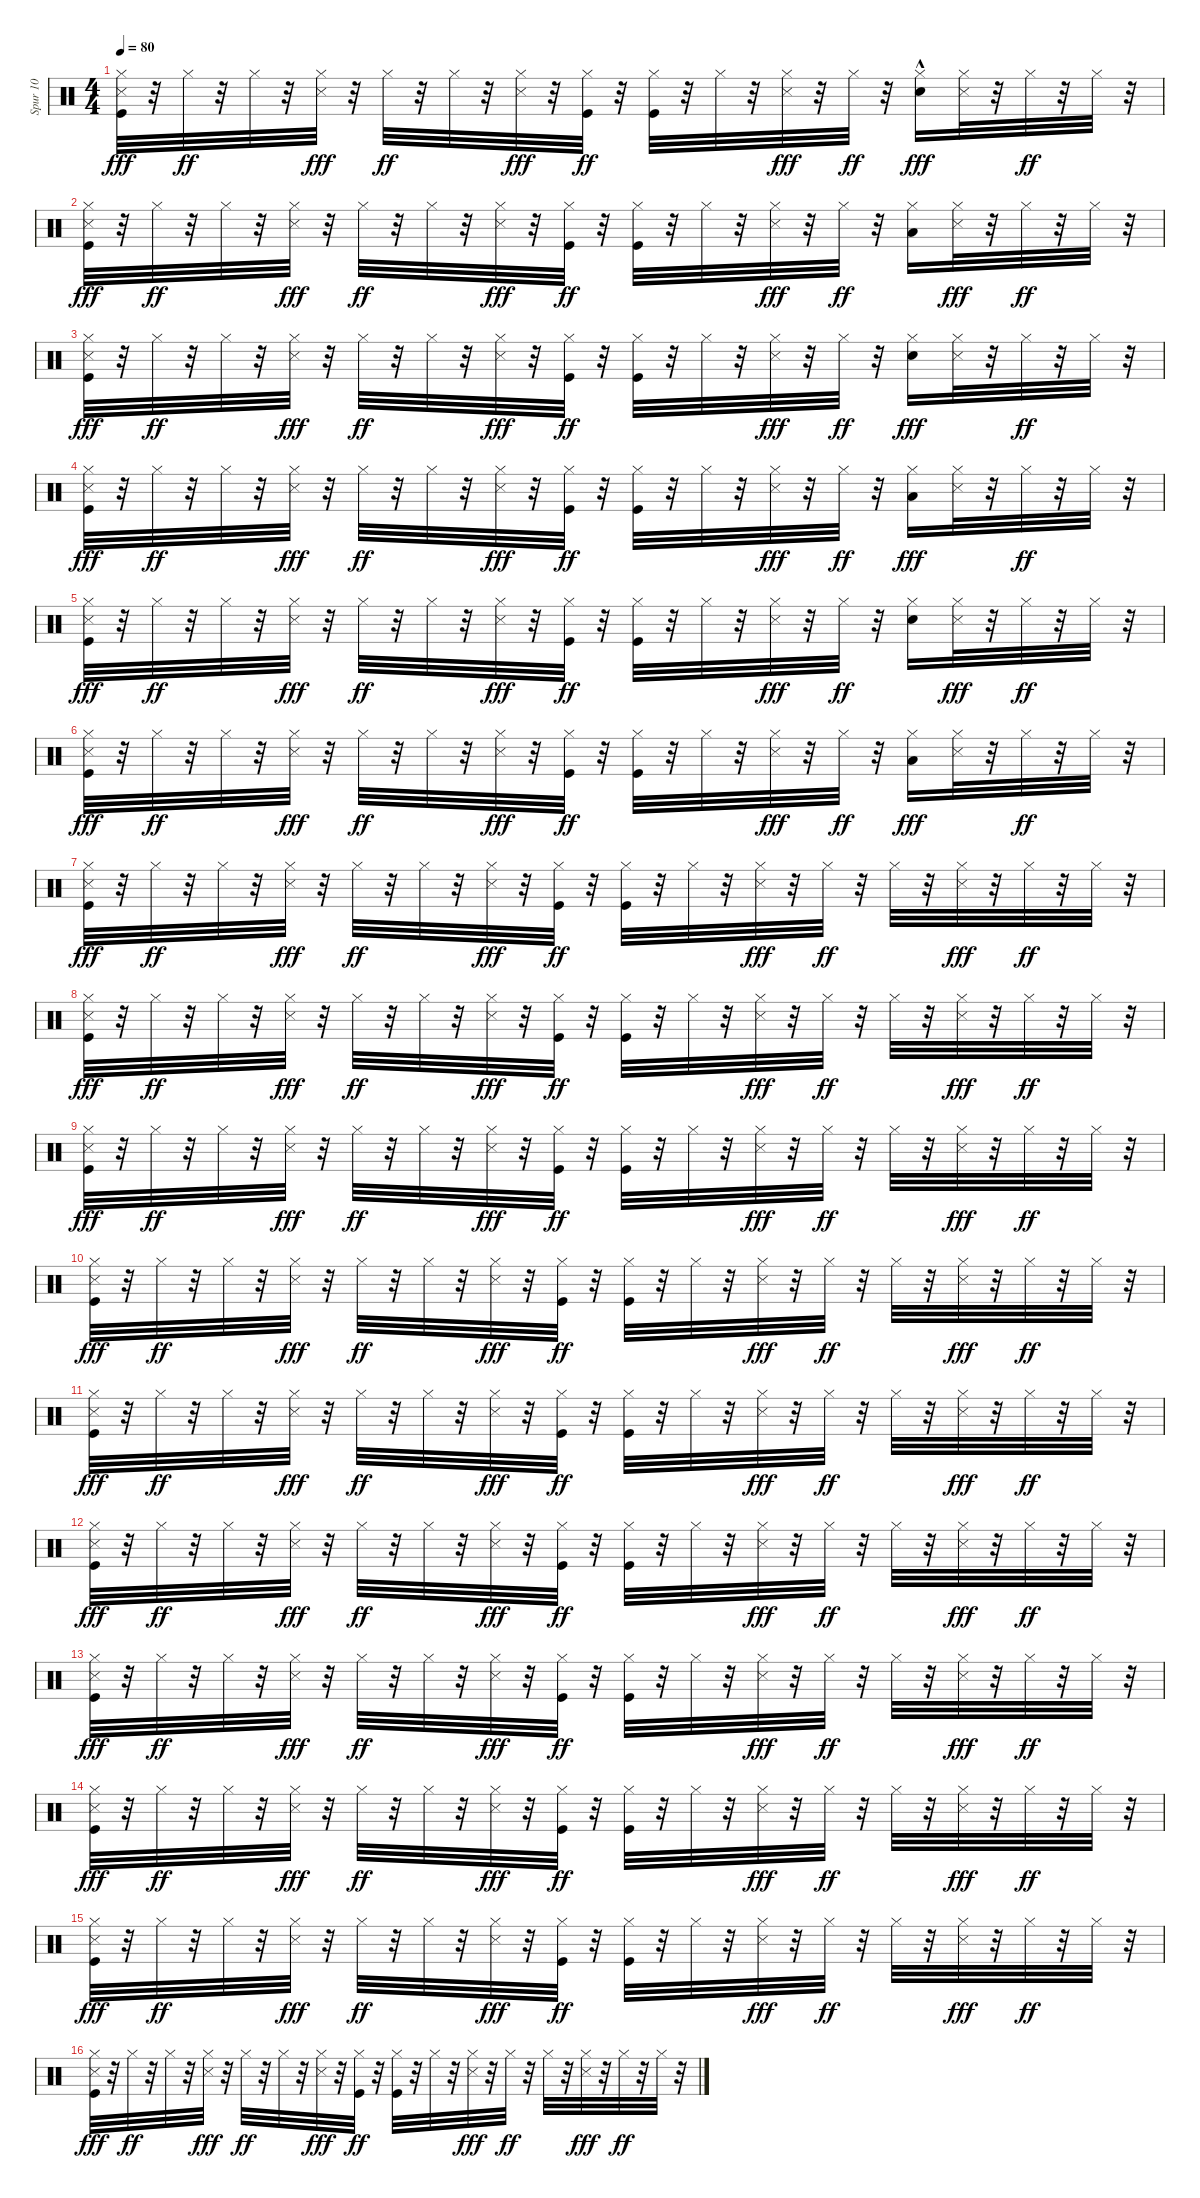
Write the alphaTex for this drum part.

\track ("Spur 10" "Spur 10") {instrument percussion}
\staff {score}
\articulation defaults
\ts (4 4)
\tempo 80
\clef neutral
\ks c
("Kick (hit)" "Hi-Hat (closed)" "Snare (side stick) 3").32{dy fff} r.32 "Hi-Hat (closed)".32{dy ff} r.32 "Hi-Hat (closed)".32 r.32 ("Hi-Hat (closed)" "Snare (side stick) 3").32{dy fff} r.32 "Hi-Hat (closed)".32{dy ff} r.32 "Hi-Hat (closed)".32 r.32 ("Hi-Hat (closed)" "Snare (side stick) 3").32{dy fff} r.32 ("Kick (hit)" "Hi-Hat (closed)").32{dy ff} r.32 ("Kick (hit)" "Hi-Hat (closed)").32 r.32 "Hi-Hat (closed)".32 r.32 ("Hi-Hat (closed)" "Snare (side stick) 3").32{dy fff} r.32 "Hi-Hat (closed)".32{dy ff} r.32 ("Hi-Hat (closed)" "Snare (hit) 2"{hac}).16{dy fff} ("Hi-Hat (closed)" "Snare (side stick) 3").32 r.32 "Hi-Hat (closed)".32{dy ff} r.32 "Hi-Hat (closed)".32 r.32 |
("Kick (hit)" "Hi-Hat (closed)" "Snare (side stick) 3").32{dy fff} r.32 "Hi-Hat (closed)".32{dy ff} r.32 "Hi-Hat (closed)".32 r.32 ("Hi-Hat (closed)" "Snare (side stick) 3").32{dy fff} r.32 "Hi-Hat (closed)".32{dy ff} r.32 "Hi-Hat (closed)".32 r.32 ("Hi-Hat (closed)" "Snare (side stick) 3").32{dy fff} r.32 ("Kick (hit)" "Hi-Hat (closed)").32{dy ff} r.32 ("Kick (hit)" "Hi-Hat (closed)").32 r.32 "Hi-Hat (closed)".32 r.32 ("Hi-Hat (closed)" "Snare (side stick) 3").32{dy fff} r.32 "Hi-Hat (closed)".32{dy ff} r.32 ("Low Floor Tom (hit)" "Hi-Hat (closed)").16 ("Hi-Hat (closed)" "Snare (side stick) 3").32{dy fff} r.32 "Hi-Hat (closed)".32{dy ff} r.32 "Hi-Hat (closed)".32 r.32 |
("Kick (hit)" "Hi-Hat (closed)" "Snare (side stick) 3").32{dy fff} r.32 "Hi-Hat (closed)".32{dy ff} r.32 "Hi-Hat (closed)".32 r.32 ("Hi-Hat (closed)" "Snare (side stick) 3").32{dy fff} r.32 "Hi-Hat (closed)".32{dy ff} r.32 "Hi-Hat (closed)".32 r.32 ("Hi-Hat (closed)" "Snare (side stick) 3").32{dy fff} r.32 ("Kick (hit)" "Hi-Hat (closed)").32{dy ff} r.32 ("Kick (hit)" "Hi-Hat (closed)").32 r.32 "Hi-Hat (closed)".32 r.32 ("Hi-Hat (closed)" "Snare (side stick) 3").32{dy fff} r.32 "Hi-Hat (closed)".32{dy ff} r.32 ("Hi-Hat (closed)" "Snare (hit) 2").16{dy fff} ("Hi-Hat (closed)" "Snare (side stick) 3").32 r.32 "Hi-Hat (closed)".32{dy ff} r.32 "Hi-Hat (closed)".32 r.32 |
("Kick (hit)" "Hi-Hat (closed)" "Snare (side stick) 3").32{dy fff} r.32 "Hi-Hat (closed)".32{dy ff} r.32 "Hi-Hat (closed)".32 r.32 ("Hi-Hat (closed)" "Snare (side stick) 3").32{dy fff} r.32 "Hi-Hat (closed)".32{dy ff} r.32 "Hi-Hat (closed)".32 r.32 ("Hi-Hat (closed)" "Snare (side stick) 3").32{dy fff} r.32 ("Kick (hit)" "Hi-Hat (closed)").32{dy ff} r.32 ("Kick (hit)" "Hi-Hat (closed)").32 r.32 "Hi-Hat (closed)".32 r.32 ("Hi-Hat (closed)" "Snare (side stick) 3").32{dy fff} r.32 "Hi-Hat (closed)".32{dy ff} r.32 ("Hi-Hat (closed)" "Low Floor Tom (hit)").16{dy fff} ("Hi-Hat (closed)" "Snare (side stick) 3").32 r.32 "Hi-Hat (closed)".32{dy ff} r.32 "Hi-Hat (closed)".32 r.32 |
("Kick (hit)" "Hi-Hat (closed)" "Snare (side stick) 3").32{dy fff} r.32 "Hi-Hat (closed)".32{dy ff} r.32 "Hi-Hat (closed)".32 r.32 ("Hi-Hat (closed)" "Snare (side stick) 3").32{dy fff} r.32 "Hi-Hat (closed)".32{dy ff} r.32 "Hi-Hat (closed)".32 r.32 ("Hi-Hat (closed)" "Snare (side stick) 3").32{dy fff} r.32 ("Kick (hit)" "Hi-Hat (closed)").32{dy ff} r.32 ("Kick (hit)" "Hi-Hat (closed)").32 r.32 "Hi-Hat (closed)".32 r.32 ("Hi-Hat (closed)" "Snare (side stick) 3").32{dy fff} r.32 "Hi-Hat (closed)".32{dy ff} r.32 ("Snare (hit) 2" "Hi-Hat (closed)").16 ("Hi-Hat (closed)" "Snare (side stick) 3").32{dy fff} r.32 "Hi-Hat (closed)".32{dy ff} r.32 "Hi-Hat (closed)".32 r.32 |
("Kick (hit)" "Hi-Hat (closed)" "Snare (side stick) 3").32{dy fff} r.32 "Hi-Hat (closed)".32{dy ff} r.32 "Hi-Hat (closed)".32 r.32 ("Hi-Hat (closed)" "Snare (side stick) 3").32{dy fff} r.32 "Hi-Hat (closed)".32{dy ff} r.32 "Hi-Hat (closed)".32 r.32 ("Hi-Hat (closed)" "Snare (side stick) 3").32{dy fff} r.32 ("Kick (hit)" "Hi-Hat (closed)").32{dy ff} r.32 ("Kick (hit)" "Hi-Hat (closed)").32 r.32 "Hi-Hat (closed)".32 r.32 ("Hi-Hat (closed)" "Snare (side stick) 3").32{dy fff} r.32 "Hi-Hat (closed)".32{dy ff} r.32 ("Hi-Hat (closed)" "Low Floor Tom (hit)").16{dy fff} ("Hi-Hat (closed)" "Snare (side stick) 3").32 r.32 "Hi-Hat (closed)".32{dy ff} r.32 "Hi-Hat (closed)".32 r.32 |
("Kick (hit)" "Hi-Hat (closed)" "Snare (side stick) 3").32{dy fff} r.32 "Hi-Hat (closed)".32{dy ff} r.32 "Hi-Hat (closed)".32 r.32 ("Hi-Hat (closed)" "Snare (side stick) 3").32{dy fff} r.32 "Hi-Hat (closed)".32{dy ff} r.32 "Hi-Hat (closed)".32 r.32 ("Hi-Hat (closed)" "Snare (side stick) 3").32{dy fff} r.32 ("Kick (hit)" "Hi-Hat (closed)").32{dy ff} r.32 ("Kick (hit)" "Hi-Hat (closed)").32 r.32 "Hi-Hat (closed)".32 r.32 ("Hi-Hat (closed)" "Snare (side stick) 3").32{dy fff} r.32 "Hi-Hat (closed)".32{dy ff} r.32 "Hi-Hat (closed)".32 r.32 ("Hi-Hat (closed)" "Snare (side stick) 3").32{dy fff} r.32 "Hi-Hat (closed)".32{dy ff} r.32 "Hi-Hat (closed)".32 r.32 |
("Kick (hit)" "Hi-Hat (closed)" "Snare (side stick) 3").32{dy fff} r.32 "Hi-Hat (closed)".32{dy ff} r.32 "Hi-Hat (closed)".32 r.32 ("Hi-Hat (closed)" "Snare (side stick) 3").32{dy fff} r.32 "Hi-Hat (closed)".32{dy ff} r.32 "Hi-Hat (closed)".32 r.32 ("Hi-Hat (closed)" "Snare (side stick) 3").32{dy fff} r.32 ("Kick (hit)" "Hi-Hat (closed)").32{dy ff} r.32 ("Kick (hit)" "Hi-Hat (closed)").32 r.32 "Hi-Hat (closed)".32 r.32 ("Hi-Hat (closed)" "Snare (side stick) 3").32{dy fff} r.32 "Hi-Hat (closed)".32{dy ff} r.32 "Hi-Hat (closed)".32 r.32 ("Hi-Hat (closed)" "Snare (side stick) 3").32{dy fff} r.32 "Hi-Hat (closed)".32{dy ff} r.32 "Hi-Hat (closed)".32 r.32 |
("Kick (hit)" "Hi-Hat (closed)" "Snare (side stick) 3").32{dy fff} r.32 "Hi-Hat (closed)".32{dy ff} r.32 "Hi-Hat (closed)".32 r.32 ("Hi-Hat (closed)" "Snare (side stick) 3").32{dy fff} r.32 "Hi-Hat (closed)".32{dy ff} r.32 "Hi-Hat (closed)".32 r.32 ("Hi-Hat (closed)" "Snare (side stick) 3").32{dy fff} r.32 ("Kick (hit)" "Hi-Hat (closed)").32{dy ff} r.32 ("Kick (hit)" "Hi-Hat (closed)").32 r.32 "Hi-Hat (closed)".32 r.32 ("Hi-Hat (closed)" "Snare (side stick) 3").32{dy fff} r.32 "Hi-Hat (closed)".32{dy ff} r.32 "Hi-Hat (closed)".32 r.32 ("Hi-Hat (closed)" "Snare (side stick) 3").32{dy fff} r.32 "Hi-Hat (closed)".32{dy ff} r.32 "Hi-Hat (closed)".32 r.32 |
("Kick (hit)" "Hi-Hat (closed)" "Snare (side stick) 3").32{dy fff} r.32 "Hi-Hat (closed)".32{dy ff} r.32 "Hi-Hat (closed)".32 r.32 ("Hi-Hat (closed)" "Snare (side stick) 3").32{dy fff} r.32 "Hi-Hat (closed)".32{dy ff} r.32 "Hi-Hat (closed)".32 r.32 ("Hi-Hat (closed)" "Snare (side stick) 3").32{dy fff} r.32 ("Kick (hit)" "Hi-Hat (closed)").32{dy ff} r.32 ("Kick (hit)" "Hi-Hat (closed)").32 r.32 "Hi-Hat (closed)".32 r.32 ("Hi-Hat (closed)" "Snare (side stick) 3").32{dy fff} r.32 "Hi-Hat (closed)".32{dy ff} r.32 "Hi-Hat (closed)".32 r.32 ("Hi-Hat (closed)" "Snare (side stick) 3").32{dy fff} r.32 "Hi-Hat (closed)".32{dy ff} r.32 "Hi-Hat (closed)".32 r.32 |
("Kick (hit)" "Hi-Hat (closed)" "Snare (side stick) 3").32{dy fff} r.32 "Hi-Hat (closed)".32{dy ff} r.32 "Hi-Hat (closed)".32 r.32 ("Hi-Hat (closed)" "Snare (side stick) 3").32{dy fff} r.32 "Hi-Hat (closed)".32{dy ff} r.32 "Hi-Hat (closed)".32 r.32 ("Hi-Hat (closed)" "Snare (side stick) 3").32{dy fff} r.32 ("Kick (hit)" "Hi-Hat (closed)").32{dy ff} r.32 ("Kick (hit)" "Hi-Hat (closed)").32 r.32 "Hi-Hat (closed)".32 r.32 ("Hi-Hat (closed)" "Snare (side stick) 3").32{dy fff} r.32 "Hi-Hat (closed)".32{dy ff} r.32 "Hi-Hat (closed)".32 r.32 ("Hi-Hat (closed)" "Snare (side stick) 3").32{dy fff} r.32 "Hi-Hat (closed)".32{dy ff} r.32 "Hi-Hat (closed)".32 r.32 |
("Kick (hit)" "Hi-Hat (closed)" "Snare (side stick) 3").32{dy fff} r.32 "Hi-Hat (closed)".32{dy ff} r.32 "Hi-Hat (closed)".32 r.32 ("Hi-Hat (closed)" "Snare (side stick) 3").32{dy fff} r.32 "Hi-Hat (closed)".32{dy ff} r.32 "Hi-Hat (closed)".32 r.32 ("Hi-Hat (closed)" "Snare (side stick) 3").32{dy fff} r.32 ("Kick (hit)" "Hi-Hat (closed)").32{dy ff} r.32 ("Kick (hit)" "Hi-Hat (closed)").32 r.32 "Hi-Hat (closed)".32 r.32 ("Hi-Hat (closed)" "Snare (side stick) 3").32{dy fff} r.32 "Hi-Hat (closed)".32{dy ff} r.32 "Hi-Hat (closed)".32 r.32 ("Hi-Hat (closed)" "Snare (side stick) 3").32{dy fff} r.32 "Hi-Hat (closed)".32{dy ff} r.32 "Hi-Hat (closed)".32 r.32 |
("Kick (hit)" "Hi-Hat (closed)" "Snare (side stick) 3").32{dy fff} r.32 "Hi-Hat (closed)".32{dy ff} r.32 "Hi-Hat (closed)".32 r.32 ("Hi-Hat (closed)" "Snare (side stick) 3").32{dy fff} r.32 "Hi-Hat (closed)".32{dy ff} r.32 "Hi-Hat (closed)".32 r.32 ("Hi-Hat (closed)" "Snare (side stick) 3").32{dy fff} r.32 ("Kick (hit)" "Hi-Hat (closed)").32{dy ff} r.32 ("Kick (hit)" "Hi-Hat (closed)").32 r.32 "Hi-Hat (closed)".32 r.32 ("Hi-Hat (closed)" "Snare (side stick) 3").32{dy fff} r.32 "Hi-Hat (closed)".32{dy ff} r.32 "Hi-Hat (closed)".32 r.32 ("Hi-Hat (closed)" "Snare (side stick) 3").32{dy fff} r.32 "Hi-Hat (closed)".32{dy ff} r.32 "Hi-Hat (closed)".32 r.32 |
("Kick (hit)" "Hi-Hat (closed)" "Snare (side stick) 3").32{dy fff} r.32 "Hi-Hat (closed)".32{dy ff} r.32 "Hi-Hat (closed)".32 r.32 ("Hi-Hat (closed)" "Snare (side stick) 3").32{dy fff} r.32 "Hi-Hat (closed)".32{dy ff} r.32 "Hi-Hat (closed)".32 r.32 ("Hi-Hat (closed)" "Snare (side stick) 3").32{dy fff} r.32 ("Kick (hit)" "Hi-Hat (closed)").32{dy ff} r.32 ("Kick (hit)" "Hi-Hat (closed)").32 r.32 "Hi-Hat (closed)".32 r.32 ("Hi-Hat (closed)" "Snare (side stick) 3").32{dy fff} r.32 "Hi-Hat (closed)".32{dy ff} r.32 "Hi-Hat (closed)".32 r.32 ("Hi-Hat (closed)" "Snare (side stick) 3").32{dy fff} r.32 "Hi-Hat (closed)".32{dy ff} r.32 "Hi-Hat (closed)".32 r.32 |
("Kick (hit)" "Hi-Hat (closed)" "Snare (side stick) 3").32{dy fff} r.32 "Hi-Hat (closed)".32{dy ff} r.32 "Hi-Hat (closed)".32 r.32 ("Hi-Hat (closed)" "Snare (side stick) 3").32{dy fff} r.32 "Hi-Hat (closed)".32{dy ff} r.32 "Hi-Hat (closed)".32 r.32 ("Hi-Hat (closed)" "Snare (side stick) 3").32{dy fff} r.32 ("Kick (hit)" "Hi-Hat (closed)").32{dy ff} r.32 ("Kick (hit)" "Hi-Hat (closed)").32 r.32 "Hi-Hat (closed)".32 r.32 ("Hi-Hat (closed)" "Snare (side stick) 3").32{dy fff} r.32 "Hi-Hat (closed)".32{dy ff} r.32 "Hi-Hat (closed)".32 r.32 ("Hi-Hat (closed)" "Snare (side stick) 3").32{dy fff} r.32 "Hi-Hat (closed)".32{dy ff} r.32 "Hi-Hat (closed)".32 r.32 |
("Kick (hit)" "Hi-Hat (closed)" "Snare (side stick) 3").32{dy fff} r.32 "Hi-Hat (closed)".32{dy ff} r.32 "Hi-Hat (closed)".32 r.32 ("Hi-Hat (closed)" "Snare (side stick) 3").32{dy fff} r.32 "Hi-Hat (closed)".32{dy ff} r.32 "Hi-Hat (closed)".32 r.32 ("Hi-Hat (closed)" "Snare (side stick) 3").32{dy fff} r.32 ("Kick (hit)" "Hi-Hat (closed)").32{dy ff} r.32 ("Kick (hit)" "Hi-Hat (closed)").32 r.32 "Hi-Hat (closed)".32 r.32 ("Hi-Hat (closed)" "Snare (side stick) 3").32{dy fff} r.32 "Hi-Hat (closed)".32{dy ff} r.32 "Hi-Hat (closed)".32 r.32 ("Hi-Hat (closed)" "Snare (side stick) 3").32{dy fff} r.32 "Hi-Hat (closed)".32{dy ff} r.32 "Hi-Hat (closed)".32 r.32
